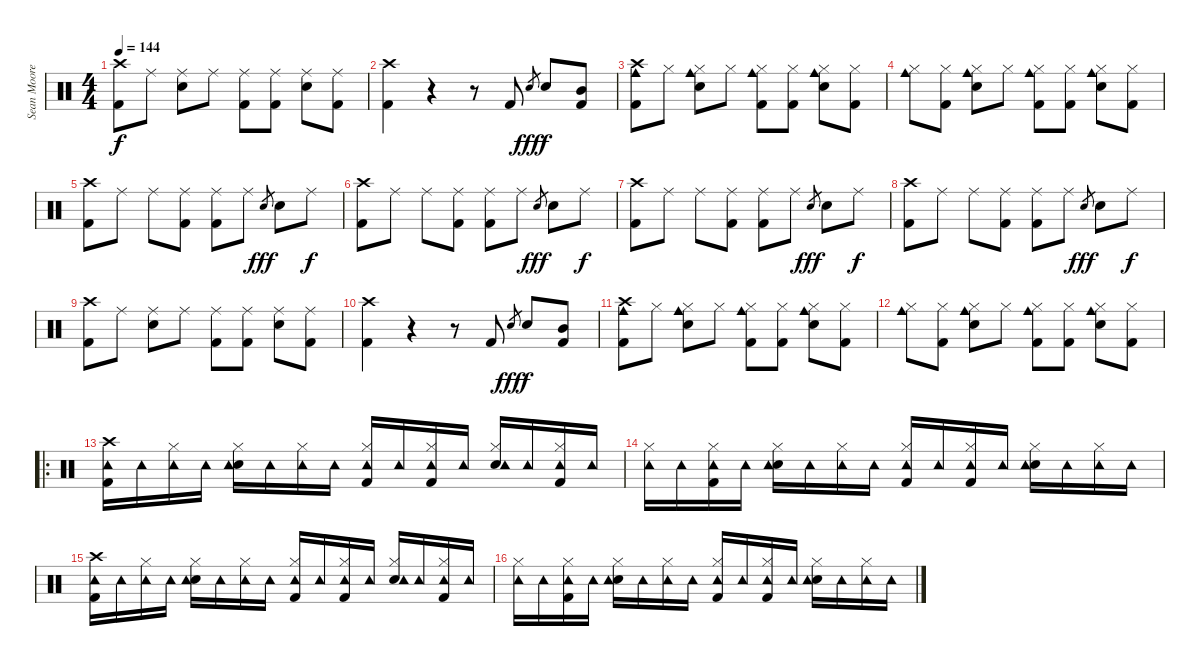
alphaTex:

\track ("Sean Moore" "Sean Moore") {instrument percussion}
\staff {score}
\articulation defaults
\ts (4 4)
\tempo 144
\clef neutral
\ks c
("Crash high (hit)" "Kick (hit) 2").8{dy f} "Ride (middle)".8 ("Ride (middle)" "Snare (hit) 2").8 "Ride (middle)".8 ("Ride (middle)" "Kick (hit) 2").8 ("Ride (middle)" "Kick (hit) 2").8 ("Ride (middle)" "Snare (hit) 2").8 ("Ride (middle)" "Kick (hit) 2").8 |
("Crash high (hit)" "Kick (hit) 2").4 r.4 r.8 "Kick (hit) 2".8 "Snare (hit) 2".8{gr dy fff} "Snare (hit) 2".8{dy f} ("Kick (hit) 2" "Mid Tom (hit)").8 |
("Crash high (hit)" "Kick (hit) 2" "Cowbell medium (hit)").8 "Hi-Hat (closed)".8 ("Hi-Hat (closed)" "Snare (hit) 2" "Cowbell medium (hit)").8 "Hi-Hat (closed)".8 ("Hi-Hat (closed)" "Kick (hit) 2" "Cowbell medium (hit)").8 ("Hi-Hat (closed)" "Kick (hit) 2").8 ("Hi-Hat (closed)" "Snare (hit) 2" "Cowbell medium (hit)").8 ("Hi-Hat (closed)" "Kick (hit) 2").8 |
("Hi-Hat (closed)" "Cowbell medium (hit)").8 ("Hi-Hat (closed)" "Kick (hit) 2").8 ("Hi-Hat (closed)" "Snare (hit) 2" "Cowbell medium (hit)").8 "Hi-Hat (closed)".8 ("Hi-Hat (closed)" "Kick (hit) 2" "Cowbell medium (hit)").8 ("Hi-Hat (closed)" "Kick (hit) 2").8 ("Hi-Hat (closed)" "Snare (hit) 2" "Cowbell medium (hit)").8 ("Hi-Hat (closed)" "Kick (hit) 2").8 |
("Crash high (hit)" "Kick (hit) 2").8 "Ride (middle)".8 "Ride (middle)".8 ("Ride (middle)" "Kick (hit) 2").8 ("Ride (middle)" "Kick (hit) 2").8 "Ride (middle)".8 "Snare (hit) 2".8{gr dy fff} "Snare (hit) 2".8 "Ride (middle)".8{dy f} |
("Crash high (hit)" "Kick (hit) 2").8 "Ride (middle)".8 "Ride (middle)".8 ("Ride (middle)" "Kick (hit) 2").8 ("Ride (middle)" "Kick (hit) 2").8 "Ride (middle)".8 "Snare (hit) 2".8{gr dy fff} "Snare (hit) 2".8 "Ride (middle)".8{dy f} |
("Crash high (hit)" "Kick (hit) 2").8 "Ride (middle)".8 "Ride (middle)".8 ("Ride (middle)" "Kick (hit) 2").8 ("Ride (middle)" "Kick (hit) 2").8 "Ride (middle)".8 "Snare (hit) 2".8{gr dy fff} "Snare (hit) 2".8 "Ride (middle)".8{dy f} |
("Crash high (hit)" "Kick (hit) 2").8 "Ride (middle)".8 "Ride (middle)".8 ("Ride (middle)" "Kick (hit) 2").8 ("Ride (middle)" "Kick (hit) 2").8 "Ride (middle)".8 "Snare (hit) 2".8{gr dy fff} "Snare (hit) 2".8 "Ride (middle)".8{dy f} |
("Crash high (hit)" "Kick (hit) 2").8 "Ride (middle)".8 ("Ride (middle)" "Snare (hit) 2").8 "Ride (middle)".8 ("Ride (middle)" "Kick (hit) 2").8 ("Ride (middle)" "Kick (hit) 2").8 ("Ride (middle)" "Snare (hit) 2").8 ("Ride (middle)" "Kick (hit) 2").8 |
("Crash high (hit)" "Kick (hit) 2").4 r.4 r.8 "Kick (hit) 2".8 "Snare (hit) 2".8{gr dy fff} "Snare (hit) 2".8{dy f} ("Kick (hit) 2" "Mid Tom (hit)").8 |
("Crash high (hit)" "Kick (hit) 2" "Cowbell medium (hit)").8 "Hi-Hat (closed)".8 ("Hi-Hat (closed)" "Snare (hit) 2" "Cowbell medium (hit)").8 "Hi-Hat (closed)".8 ("Hi-Hat (closed)" "Kick (hit) 2" "Cowbell medium (hit)").8 ("Hi-Hat (closed)" "Kick (hit) 2").8 ("Hi-Hat (closed)" "Snare (hit) 2" "Cowbell medium (hit)").8 ("Hi-Hat (closed)" "Kick (hit) 2").8 |
("Hi-Hat (closed)" "Cowbell medium (hit)").8 ("Hi-Hat (closed)" "Kick (hit) 2").8 ("Hi-Hat (closed)" "Snare (hit) 2" "Cowbell medium (hit)").8 "Hi-Hat (closed)".8 ("Hi-Hat (closed)" "Kick (hit) 2" "Cowbell medium (hit)").8 ("Hi-Hat (closed)" "Kick (hit) 2").8 ("Hi-Hat (closed)" "Snare (hit) 2" "Cowbell medium (hit)").8 ("Hi-Hat (closed)" "Kick (hit) 2").8 |
\ro
("Crash high (hit)" "Kick (hit) 2" "Tambourine (hit)").16 "Tambourine (hit)".16 ("Hi-Hat (closed)" "Tambourine (hit)").16 "Tambourine (hit)".16 ("Hi-Hat (closed)" "Snare (hit) 2" "Tambourine (hit)").16 "Tambourine (hit)".16 ("Hi-Hat (closed)" "Tambourine (hit)").16 "Tambourine (hit)".16 ("Hi-Hat (closed)" "Kick (hit) 2" "Tambourine (hit)").16 "Tambourine (hit)".16 ("Hi-Hat (closed)" "Kick (hit) 2" "Tambourine (hit)").16 "Tambourine (hit)".16 ("Hi-Hat (closed)" "Snare (hit) 2" "Tambourine (hit)").16 "Tambourine (hit)".16 ("Hi-Hat (closed)" "Kick (hit) 2" "Tambourine (hit)").16 "Tambourine (hit)".16 |
("Hi-Hat (closed)" "Tambourine (hit)").16 "Tambourine (hit)".16 ("Hi-Hat (closed)" "Kick (hit) 2" "Tambourine (hit)").16 "Tambourine (hit)".16 ("Hi-Hat (closed)" "Snare (hit) 2" "Tambourine (hit)").16 "Tambourine (hit)".16 ("Hi-Hat (closed)" "Tambourine (hit)").16 "Tambourine (hit)".16 ("Hi-Hat (closed)" "Kick (hit) 2" "Tambourine (hit)").16 "Tambourine (hit)".16 ("Hi-Hat (closed)" "Kick (hit) 2" "Tambourine (hit)").16 "Tambourine (hit)".16 ("Hi-Hat (closed)" "Snare (hit) 2" "Tambourine (hit)").16 "Tambourine (hit)".16 ("Hi-Hat (closed)" "Tambourine (hit)").16 "Tambourine (hit)".16 |
("Crash high (hit)" "Kick (hit) 2" "Tambourine (hit)").16 "Tambourine (hit)".16 ("Hi-Hat (closed)" "Tambourine (hit)").16 "Tambourine (hit)".16 ("Hi-Hat (closed)" "Snare (hit) 2" "Tambourine (hit)").16 "Tambourine (hit)".16 ("Hi-Hat (closed)" "Tambourine (hit)").16 "Tambourine (hit)".16 ("Hi-Hat (closed)" "Kick (hit) 2" "Tambourine (hit)").16 "Tambourine (hit)".16 ("Hi-Hat (closed)" "Kick (hit) 2" "Tambourine (hit)").16 "Tambourine (hit)".16 ("Hi-Hat (closed)" "Snare (hit) 2" "Tambourine (hit)").16 "Tambourine (hit)".16 ("Hi-Hat (closed)" "Kick (hit) 2" "Tambourine (hit)").16 "Tambourine (hit)".16 |
("Hi-Hat (closed)" "Tambourine (hit)").16 "Tambourine (hit)".16 ("Hi-Hat (closed)" "Kick (hit) 2" "Tambourine (hit)").16 "Tambourine (hit)".16 ("Hi-Hat (closed)" "Snare (hit) 2" "Tambourine (hit)").16 "Tambourine (hit)".16 ("Hi-Hat (closed)" "Tambourine (hit)").16 "Tambourine (hit)".16 ("Hi-Hat (closed)" "Kick (hit) 2" "Tambourine (hit)").16 "Tambourine (hit)".16 ("Hi-Hat (closed)" "Kick (hit) 2" "Tambourine (hit)").16 "Tambourine (hit)".16 ("Hi-Hat (closed)" "Snare (hit) 2" "Tambourine (hit)").16 "Tambourine (hit)".16 ("Hi-Hat (closed)" "Tambourine (hit)").16 "Tambourine (hit)".16
